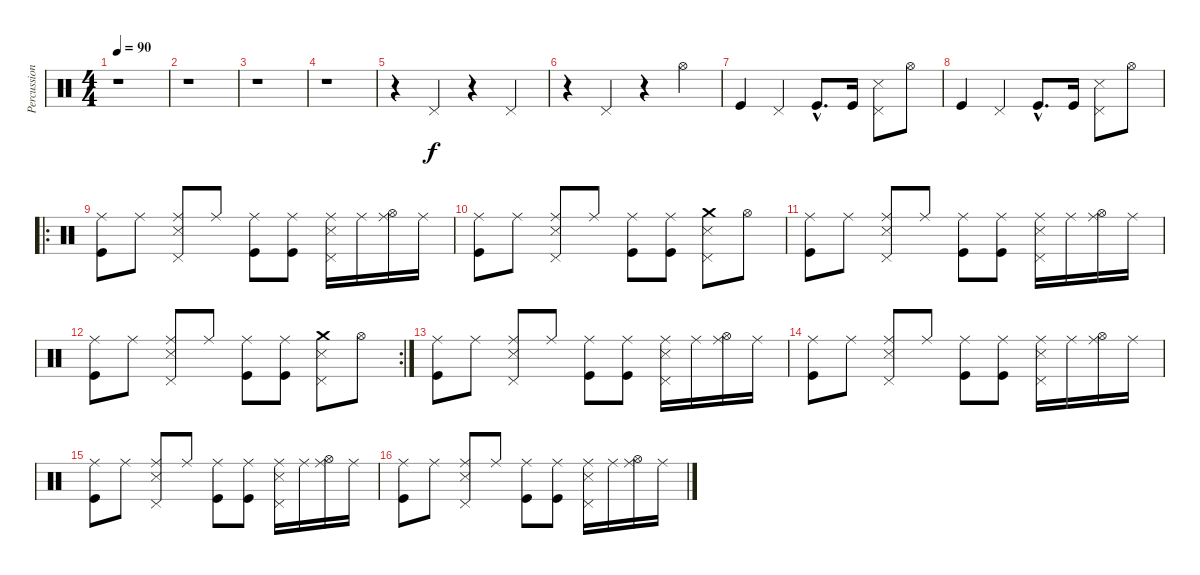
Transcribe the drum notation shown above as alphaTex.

\track ("Percussion" "Percussion") {instrument percussion}
\staff {score}
\articulation defaults
\ts (4 4)
\tempo 90
\clef neutral
\ks c
r.1{dy f} |
r.1 |
r.1 |
r.1 |
r.4 "Pedal Hi-Hat (hit)".4 r.4 "Pedal Hi-Hat (hit)".4 |
r.4 "Pedal Hi-Hat (hit)".4 r.4 "Hi-Hat (open)".4 |
"Kick (hit)".4 "Pedal Hi-Hat (hit)".4 "Kick (hit)"{hac}.8{d} "Kick (hit)".16 ("Pedal Hi-Hat (hit)" "Snare (side stick) 3").8 "Hi-Hat (open)".8 |
"Kick (hit)".4 "Pedal Hi-Hat (hit)".4 "Kick (hit)"{hac}.8{d} "Kick (hit)".16 ("Pedal Hi-Hat (hit)" "Snare (side stick) 3").8 "Hi-Hat (open)".8 |
\ro
("Ride (middle)" "Kick (hit)").8 "Ride (middle)".8 ("Ride (middle)" "Pedal Hi-Hat (hit)" "Snare (side stick) 3").8 "Ride (middle)".8 ("Ride (middle)" "Kick (hit)").8 ("Ride (middle)" "Kick (hit)").8 ("Ride (middle)" "Pedal Hi-Hat (hit)" "Snare (side stick) 3").16 "Ride (middle)".16 ("Ride (middle)" "Hi-Hat (open)").16 "Ride (middle)".16 |
("Ride (middle)" "Kick (hit)").8 "Ride (middle)".8 ("Ride (middle)" "Pedal Hi-Hat (hit)" "Snare (side stick) 3").8 "Ride (middle)".8 ("Ride (middle)" "Kick (hit)").8 ("Ride (middle)" "Kick (hit)").8 ("Crash medium (hit)" "Pedal Hi-Hat (hit)" "Snare (side stick) 3").8 "Hi-Hat (open)".8 |
("Ride (middle)" "Kick (hit)").8 "Ride (middle)".8 ("Ride (middle)" "Pedal Hi-Hat (hit)" "Snare (side stick) 3").8 "Ride (middle)".8 ("Ride (middle)" "Kick (hit)").8 ("Ride (middle)" "Kick (hit)").8 ("Ride (middle)" "Pedal Hi-Hat (hit)" "Snare (side stick) 3").16 "Ride (middle)".16 ("Ride (middle)" "Hi-Hat (open)").16 "Ride (middle)".16 |
\rc 2
("Ride (middle)" "Kick (hit)").8 "Ride (middle)".8 ("Ride (middle)" "Pedal Hi-Hat (hit)" "Snare (side stick) 3").8 "Ride (middle)".8 ("Ride (middle)" "Kick (hit)").8 ("Ride (middle)" "Kick (hit)").8 ("Crash medium (hit)" "Pedal Hi-Hat (hit)" "Snare (side stick) 3").8 "Hi-Hat (open)".8 |
("Ride (middle)" "Kick (hit)").8 "Ride (middle)".8 ("Ride (middle)" "Pedal Hi-Hat (hit)" "Snare (side stick) 3").8 "Ride (middle)".8 ("Ride (middle)" "Kick (hit)").8 ("Ride (middle)" "Kick (hit)").8 ("Ride (middle)" "Pedal Hi-Hat (hit)" "Snare (side stick) 3").16 "Ride (middle)".16 ("Ride (middle)" "Hi-Hat (open)").16 "Ride (middle)".16 |
("Ride (middle)" "Kick (hit)").8 "Ride (middle)".8 ("Ride (middle)" "Pedal Hi-Hat (hit)" "Snare (side stick) 3").8 "Ride (middle)".8 ("Ride (middle)" "Kick (hit)").8 ("Ride (middle)" "Kick (hit)").8 ("Ride (middle)" "Pedal Hi-Hat (hit)" "Snare (side stick) 3").16 "Ride (middle)".16 ("Ride (middle)" "Hi-Hat (open)").16 "Ride (middle)".16 |
("Ride (middle)" "Kick (hit)").8 "Ride (middle)".8 ("Ride (middle)" "Pedal Hi-Hat (hit)" "Snare (side stick) 3").8 "Ride (middle)".8 ("Ride (middle)" "Kick (hit)").8 ("Ride (middle)" "Kick (hit)").8 ("Ride (middle)" "Pedal Hi-Hat (hit)" "Snare (side stick) 3").16 "Ride (middle)".16 ("Ride (middle)" "Hi-Hat (open)").16 "Ride (middle)".16 |
("Ride (middle)" "Kick (hit)").8 "Ride (middle)".8 ("Ride (middle)" "Pedal Hi-Hat (hit)" "Snare (side stick) 3").8 "Ride (middle)".8 ("Ride (middle)" "Kick (hit)").8 ("Ride (middle)" "Kick (hit)").8 ("Ride (middle)" "Pedal Hi-Hat (hit)" "Snare (side stick) 3").16 "Ride (middle)".16 ("Ride (middle)" "Hi-Hat (open)").16 "Ride (middle)".16
